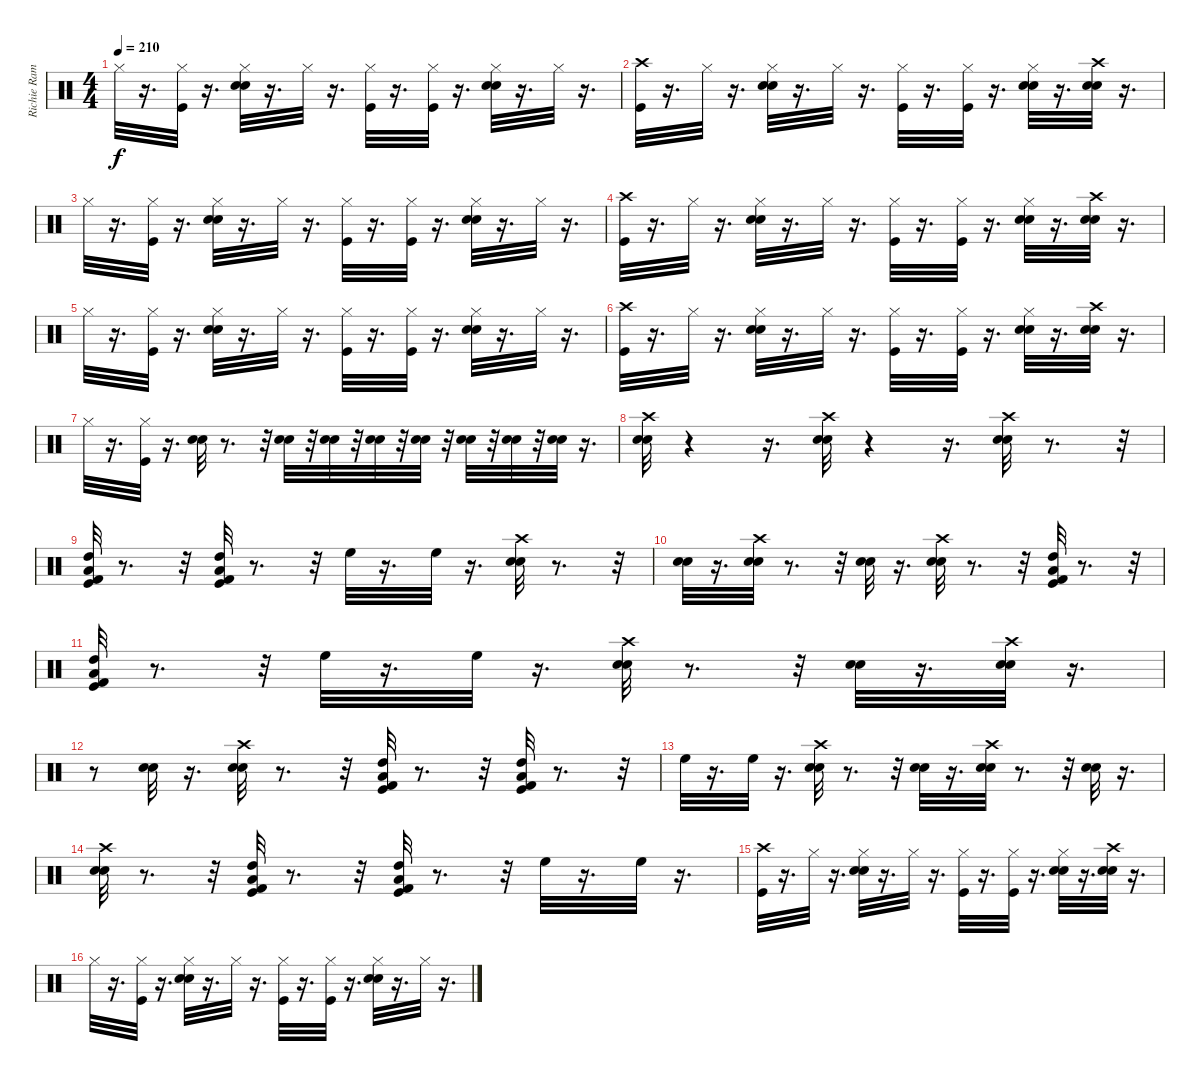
\track ("Richie Ramone" "Richie Ram") {instrument percussion}
\staff {score}
\articulation defaults
\ts (4 4)
\tempo 210
\clef neutral
\ks c "Hi-Hat (closed)".32{dy f}
r.16{d} ("Hi-Hat (closed)" "Kick (hit)").32 r.16{d} ("Hand Clap (hit)" "Hi-Hat (closed)" "Electric Snare (hit)").32 r.16{d} "Hi-Hat (closed)".32 r.16{d} ("Hi-Hat (closed)" "Kick (hit)").32 r.16{d} ("Hi-Hat (closed)" "Kick (hit)").32 r.16{d} ("Hand Clap (hit)" "Hi-Hat (closed)" "Electric Snare (hit)").32 r.16{d} "Hi-Hat (closed)".32 r.16{d} |
("Crash high (hit)" "Kick (hit)").32 r.16{d} "Hi-Hat (closed)".32 r.16{d} ("Hand Clap (hit)" "Hi-Hat (closed)" "Electric Snare (hit)").32 r.16{d} "Hi-Hat (closed)".32 r.16{d} ("Hi-Hat (closed)" "Kick (hit)").32 r.16{d} ("Hi-Hat (closed)" "Kick (hit)").32 r.16{d} ("Hand Clap (hit)" "Hi-Hat (closed)" "Electric Snare (hit)").32 r.16{d} ("Hand Clap (hit)" "Crash high (hit)" "Electric Snare (hit)").32 r.16{d} |
"Hi-Hat (closed)".32 r.16{d} ("Hi-Hat (closed)" "Kick (hit)").32 r.16{d} ("Hand Clap (hit)" "Hi-Hat (closed)" "Electric Snare (hit)").32 r.16{d} "Hi-Hat (closed)".32 r.16{d} ("Hi-Hat (closed)" "Kick (hit)").32 r.16{d} ("Hi-Hat (closed)" "Kick (hit)").32 r.16{d} ("Hand Clap (hit)" "Hi-Hat (closed)" "Electric Snare (hit)").32 r.16{d} "Hi-Hat (closed)".32 r.16{d} |
("Crash high (hit)" "Kick (hit)").32 r.16{d} "Hi-Hat (closed)".32 r.16{d} ("Hand Clap (hit)" "Hi-Hat (closed)" "Electric Snare (hit)").32 r.16{d} "Hi-Hat (closed)".32 r.16{d} ("Hi-Hat (closed)" "Kick (hit)").32 r.16{d} ("Hi-Hat (closed)" "Kick (hit)").32 r.16{d} ("Hand Clap (hit)" "Hi-Hat (closed)" "Electric Snare (hit)").32 r.16{d} ("Hand Clap (hit)" "Crash high (hit)" "Electric Snare (hit)").32 r.16{d} |
"Hi-Hat (closed)".32 r.16{d} ("Hi-Hat (closed)" "Kick (hit)").32 r.16{d} ("Hand Clap (hit)" "Hi-Hat (closed)" "Electric Snare (hit)").32 r.16{d} "Hi-Hat (closed)".32 r.16{d} ("Hi-Hat (closed)" "Kick (hit)").32 r.16{d} ("Hi-Hat (closed)" "Kick (hit)").32 r.16{d} ("Hand Clap (hit)" "Hi-Hat (closed)" "Electric Snare (hit)").32 r.16{d} "Hi-Hat (closed)".32 r.16{d} |
("Crash high (hit)" "Kick (hit)").32 r.16{d} "Hi-Hat (closed)".32 r.16{d} ("Hand Clap (hit)" "Hi-Hat (closed)" "Electric Snare (hit)").32 r.16{d} "Hi-Hat (closed)".32 r.16{d} ("Hi-Hat (closed)" "Kick (hit)").32 r.16{d} ("Hi-Hat (closed)" "Kick (hit)").32 r.16{d} ("Hand Clap (hit)" "Hi-Hat (closed)" "Electric Snare (hit)").32 r.16{d} ("Hand Clap (hit)" "Crash high (hit)" "Electric Snare (hit)").32 r.16{d} |
"Hi-Hat (closed)".32 r.16{d} ("Hi-Hat (closed)" "Kick (hit)").32 r.16{d} ("Electric Snare (hit)" "Hand Clap (hit)").32 r.8{d} r.32 ("Hand Clap (hit)" "Electric Snare (hit)").32 r.32 ("Hand Clap (hit)" "Electric Snare (hit)").32 r.32 ("Electric Snare (hit)" "Hand Clap (hit)").32 r.32 ("Electric Snare (hit)" "Hand Clap (hit)").32 r.32 ("Electric Snare (hit)" "Hand Clap (hit)").32 r.32 ("Electric Snare (hit)" "Hand Clap (hit)").32 r.32 ("Electric Snare (hit)" "Hand Clap (hit)").32 r.16{d} |
("Crash high (hit)" "Hand Clap (hit)" "Electric Snare (hit)").32 r.4 r.16{d} ("Hand Clap (hit)" "Electric Snare (hit)" "Crash high (hit)").32 r.4 r.16{d} ("Hand Clap (hit)" "Electric Snare (hit)" "Crash high (hit)").32 r.8{d} r.32 |
("High Tom (hit)" "Kick (hit) 2" "Kick (hit)" "Low Tom (hit)").32 r.8{d} r.32 ("High Tom (hit)" "Kick (hit) 2" "Kick (hit)" "Low Tom (hit)").32 r.8{d} r.32 "High Floor Tom (hit)".32 r.16{d} "High Floor Tom (hit)".32 r.16{d} ("Hand Clap (hit)" "Electric Snare (hit)" "Crash high (hit)").32 r.8{d} r.32 |
("Hand Clap (hit)" "Electric Snare (hit)").32 r.16{d} ("Hand Clap (hit)" "Electric Snare (hit)" "Crash high (hit)").32 r.8{d} r.32 ("Electric Snare (hit)" "Hand Clap (hit)").32 r.16{d} ("Crash high (hit)" "Electric Snare (hit)" "Hand Clap (hit)").32 r.8{d} r.32 ("High Tom (hit)" "Kick (hit) 2" "Kick (hit)" "Low Tom (hit)").32 r.8{d} r.32 |
("High Tom (hit)" "Kick (hit) 2" "Kick (hit)" "Low Tom (hit)").32 r.8{d} r.32 "High Floor Tom (hit)".32 r.16{d} "High Floor Tom (hit)".32 r.16{d} ("Hand Clap (hit)" "Electric Snare (hit)" "Crash high (hit)").32 r.8{d} r.32 ("Hand Clap (hit)" "Electric Snare (hit)").32 r.16{d} ("Hand Clap (hit)" "Electric Snare (hit)" "Crash high (hit)").32 r.16{d} |
r.8 ("Electric Snare (hit)" "Hand Clap (hit)").32 r.16{d} ("Crash high (hit)" "Electric Snare (hit)" "Hand Clap (hit)").32 r.8{d} r.32 ("High Tom (hit)" "Kick (hit) 2" "Kick (hit)" "Low Tom (hit)").32 r.8{d} r.32 ("High Tom (hit)" "Kick (hit) 2" "Kick (hit)" "Low Tom (hit)").32 r.8{d} r.32 |
"High Floor Tom (hit)".32 r.16{d} "High Floor Tom (hit)".32 r.16{d} ("Hand Clap (hit)" "Electric Snare (hit)" "Crash high (hit)").32 r.8{d} r.32 ("Hand Clap (hit)" "Electric Snare (hit)").32 r.16{d} ("Hand Clap (hit)" "Electric Snare (hit)" "Crash high (hit)").32 r.8{d} r.32 ("Electric Snare (hit)" "Hand Clap (hit)").32 r.16{d} |
("Crash high (hit)" "Electric Snare (hit)" "Hand Clap (hit)").32 r.8{d} r.32 ("High Tom (hit)" "Kick (hit) 2" "Kick (hit)" "Low Tom (hit)").32 r.8{d} r.32 ("High Tom (hit)" "Kick (hit) 2" "Kick (hit)" "Low Tom (hit)").32 r.8{d} r.32 "High Floor Tom (hit)".32 r.16{d} "High Floor Tom (hit)".32 r.16{d} |
("Crash high (hit)" "Kick (hit)").32 r.16{d} "Hi-Hat (closed)".32 r.16{d} ("Hand Clap (hit)" "Hi-Hat (closed)" "Electric Snare (hit)").32 r.16{d} "Hi-Hat (closed)".32 r.16{d} ("Hi-Hat (closed)" "Kick (hit)").32 r.16{d} ("Hi-Hat (closed)" "Kick (hit)").32 r.16{d} ("Hand Clap (hit)" "Hi-Hat (closed)" "Electric Snare (hit)").32 r.16{d} ("Hand Clap (hit)" "Crash high (hit)" "Electric Snare (hit)").32 r.16{d} |
"Hi-Hat (closed)".32 r.16{d} ("Hi-Hat (closed)" "Kick (hit)").32 r.16{d} ("Hand Clap (hit)" "Hi-Hat (closed)" "Electric Snare (hit)").32 r.16{d} "Hi-Hat (closed)".32 r.16{d} ("Hi-Hat (closed)" "Kick (hit)").32 r.16{d} ("Hi-Hat (closed)" "Kick (hit)").32 r.16{d} ("Hand Clap (hit)" "Hi-Hat (closed)" "Electric Snare (hit)").32 r.16{d} "Hi-Hat (closed)".32 r.16{d}
